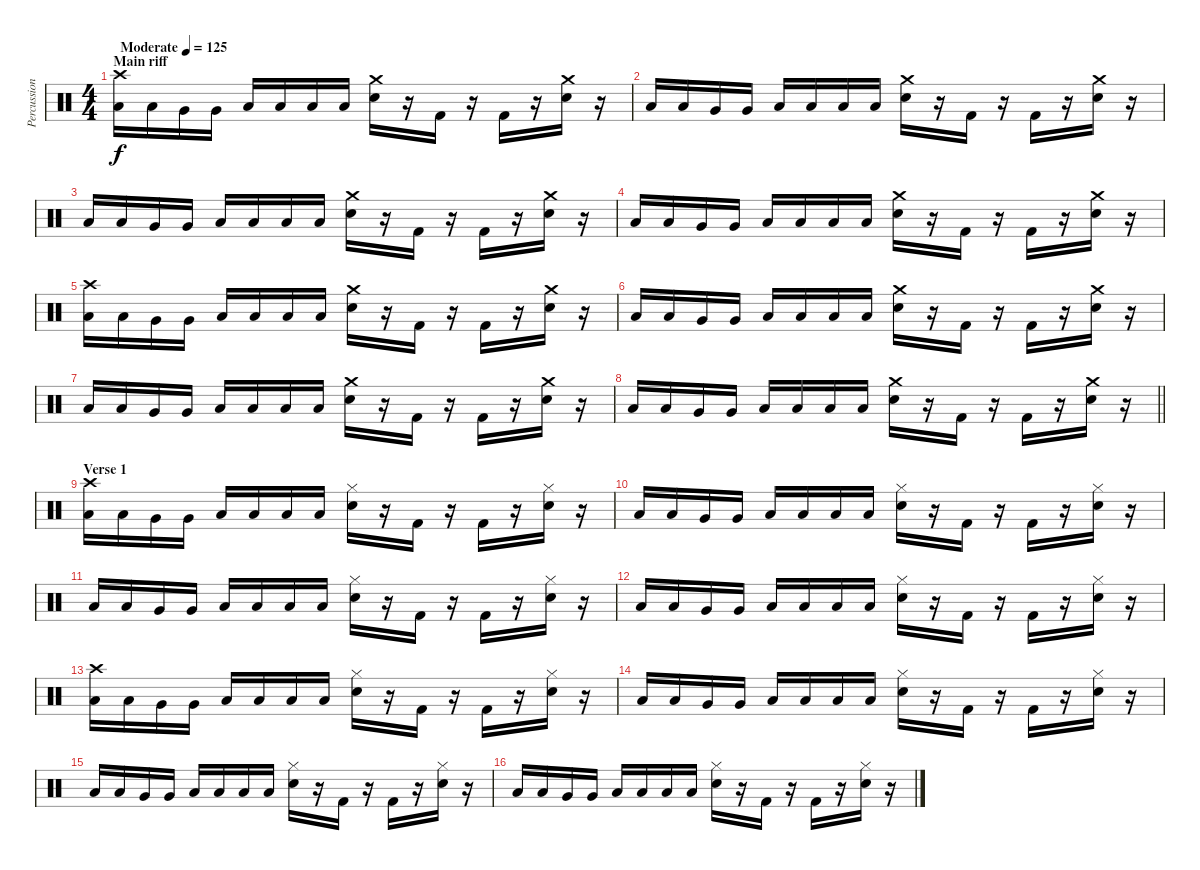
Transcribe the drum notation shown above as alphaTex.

\track ("Percussion" "Percussion") {instrument percussion}
\staff {score}
\articulation defaults
\ts (4 4)
\section ("" "Main riff")
\tempo (125 "Moderate")
\clef neutral
\ks c
("Crash high (hit)" "Low Tom (hit)").16{dy f} "Low Tom (hit)".16 "Very Low Tom (hit)".16 "Very Low Tom (hit)".16 "Low Floor Tom (hit)".16 "Low Floor Tom (hit)".16 "Low Tom (hit)".16 "Low Tom (hit)".16 ("Crash medium (hit)" "Electric Snare (hit)").16 r.16 "Kick (hit) 2".16 r.16 "Kick (hit) 2".16 r.16 ("Crash medium (hit)" "Electric Snare (hit)").16 r.16 |
"Low Tom (hit)".16 "Low Tom (hit)".16 "Very Low Tom (hit)".16 "Very Low Tom (hit)".16 "Low Floor Tom (hit)".16 "Low Floor Tom (hit)".16 "Low Tom (hit)".16 "Low Tom (hit)".16 ("Crash medium (hit)" "Electric Snare (hit)").16 r.16 "Kick (hit) 2".16 r.16 "Kick (hit) 2".16 r.16 ("Crash medium (hit)" "Electric Snare (hit)").16 r.16 |
"Low Tom (hit)".16 "Low Tom (hit)".16 "Very Low Tom (hit)".16 "Very Low Tom (hit)".16 "Low Floor Tom (hit)".16 "Low Floor Tom (hit)".16 "Low Tom (hit)".16 "Low Tom (hit)".16 ("Crash medium (hit)" "Electric Snare (hit)").16 r.16 "Kick (hit) 2".16 r.16 "Kick (hit) 2".16 r.16 ("Crash medium (hit)" "Electric Snare (hit)").16 r.16 |
"Low Tom (hit)".16 "Low Tom (hit)".16 "Very Low Tom (hit)".16 "Very Low Tom (hit)".16 "Low Floor Tom (hit)".16 "Low Floor Tom (hit)".16 "Low Tom (hit)".16 "Low Tom (hit)".16 ("Crash medium (hit)" "Electric Snare (hit)").16 r.16 "Kick (hit) 2".16 r.16 "Kick (hit) 2".16 r.16 ("Crash medium (hit)" "Electric Snare (hit)").16 r.16 |
("Crash high (hit)" "Low Tom (hit)").16 "Low Tom (hit)".16 "Very Low Tom (hit)".16 "Very Low Tom (hit)".16 "Low Floor Tom (hit)".16 "Low Floor Tom (hit)".16 "Low Tom (hit)".16 "Low Tom (hit)".16 ("Crash medium (hit)" "Electric Snare (hit)").16 r.16 "Kick (hit) 2".16 r.16 "Kick (hit) 2".16 r.16 ("Crash medium (hit)" "Electric Snare (hit)").16 r.16 |
"Low Tom (hit)".16 "Low Tom (hit)".16 "Very Low Tom (hit)".16 "Very Low Tom (hit)".16 "Low Floor Tom (hit)".16 "Low Floor Tom (hit)".16 "Low Tom (hit)".16 "Low Tom (hit)".16 ("Crash medium (hit)" "Electric Snare (hit)").16 r.16 "Kick (hit) 2".16 r.16 "Kick (hit) 2".16 r.16 ("Crash medium (hit)" "Electric Snare (hit)").16 r.16 |
"Low Tom (hit)".16 "Low Tom (hit)".16 "Very Low Tom (hit)".16 "Very Low Tom (hit)".16 "Low Floor Tom (hit)".16 "Low Floor Tom (hit)".16 "Low Tom (hit)".16 "Low Tom (hit)".16 ("Crash medium (hit)" "Electric Snare (hit)").16 r.16 "Kick (hit) 2".16 r.16 "Kick (hit) 2".16 r.16 ("Crash medium (hit)" "Electric Snare (hit)").16 r.16 |
\barLineRight lightlight "Low Tom (hit)".16 "Low Tom (hit)".16 "Very Low Tom (hit)".16 "Very Low Tom (hit)".16 "Low Floor Tom (hit)".16 "Low Floor Tom (hit)".16 "Low Tom (hit)".16 "Low Tom (hit)".16
("Crash medium (hit)" "Electric Snare (hit)").16 r.16 "Kick (hit) 2".16 r.16 "Kick (hit) 2".16 r.16 ("Crash medium (hit)" "Electric Snare (hit)").16 r.16 |
\section ("" "Verse 1")
("Crash high (hit)" "Low Tom (hit)").16 "Low Tom (hit)".16 "Very Low Tom (hit)".16 "Very Low Tom (hit)".16 "Low Floor Tom (hit)".16 "Low Floor Tom (hit)".16 "Low Tom (hit)".16 "Low Tom (hit)".16 ("Hi-Hat (closed)" "Electric Snare (hit)").16 r.16 "Kick (hit) 2".16 r.16 "Kick (hit) 2".16 r.16 ("Hi-Hat (closed)" "Electric Snare (hit)").16 r.16 |
"Low Tom (hit)".16 "Low Tom (hit)".16 "Very Low Tom (hit)".16 "Very Low Tom (hit)".16 "Low Floor Tom (hit)".16 "Low Floor Tom (hit)".16 "Low Tom (hit)".16 "Low Tom (hit)".16 ("Hi-Hat (closed)" "Electric Snare (hit)").16 r.16 "Kick (hit) 2".16 r.16 "Kick (hit) 2".16 r.16 ("Hi-Hat (closed)" "Electric Snare (hit)").16 r.16 |
"Low Tom (hit)".16 "Low Tom (hit)".16 "Very Low Tom (hit)".16 "Very Low Tom (hit)".16 "Low Floor Tom (hit)".16 "Low Floor Tom (hit)".16 "Low Tom (hit)".16 "Low Tom (hit)".16 ("Hi-Hat (closed)" "Electric Snare (hit)").16 r.16 "Kick (hit) 2".16 r.16 "Kick (hit) 2".16 r.16 ("Hi-Hat (closed)" "Electric Snare (hit)").16 r.16 |
"Low Tom (hit)".16 "Low Tom (hit)".16 "Very Low Tom (hit)".16 "Very Low Tom (hit)".16 "Low Floor Tom (hit)".16 "Low Floor Tom (hit)".16 "Low Tom (hit)".16 "Low Tom (hit)".16 ("Hi-Hat (closed)" "Electric Snare (hit)").16 r.16 "Kick (hit) 2".16 r.16 "Kick (hit) 2".16 r.16 ("Hi-Hat (closed)" "Electric Snare (hit)").16 r.16 |
("Crash high (hit)" "Low Tom (hit)").16 "Low Tom (hit)".16 "Very Low Tom (hit)".16 "Very Low Tom (hit)".16 "Low Floor Tom (hit)".16 "Low Floor Tom (hit)".16 "Low Tom (hit)".16 "Low Tom (hit)".16 ("Hi-Hat (closed)" "Electric Snare (hit)").16 r.16 "Kick (hit) 2".16 r.16 "Kick (hit) 2".16 r.16 ("Hi-Hat (closed)" "Electric Snare (hit)").16 r.16 |
"Low Tom (hit)".16 "Low Tom (hit)".16 "Very Low Tom (hit)".16 "Very Low Tom (hit)".16 "Low Floor Tom (hit)".16 "Low Floor Tom (hit)".16 "Low Tom (hit)".16 "Low Tom (hit)".16 ("Hi-Hat (closed)" "Electric Snare (hit)").16 r.16 "Kick (hit) 2".16 r.16 "Kick (hit) 2".16 r.16 ("Hi-Hat (closed)" "Electric Snare (hit)").16 r.16 |
"Low Tom (hit)".16 "Low Tom (hit)".16 "Very Low Tom (hit)".16 "Very Low Tom (hit)".16 "Low Floor Tom (hit)".16 "Low Floor Tom (hit)".16 "Low Tom (hit)".16 "Low Tom (hit)".16 ("Hi-Hat (closed)" "Electric Snare (hit)").16 r.16 "Kick (hit) 2".16 r.16 "Kick (hit) 2".16 r.16 ("Hi-Hat (closed)" "Electric Snare (hit)").16 r.16 |
"Low Tom (hit)".16 "Low Tom (hit)".16 "Very Low Tom (hit)".16 "Very Low Tom (hit)".16 "Low Floor Tom (hit)".16 "Low Floor Tom (hit)".16 "Low Tom (hit)".16 "Low Tom (hit)".16 ("Hi-Hat (closed)" "Electric Snare (hit)").16 r.16 "Kick (hit) 2".16 r.16 "Kick (hit) 2".16 r.16 ("Hi-Hat (closed)" "Electric Snare (hit)").16 r.16
